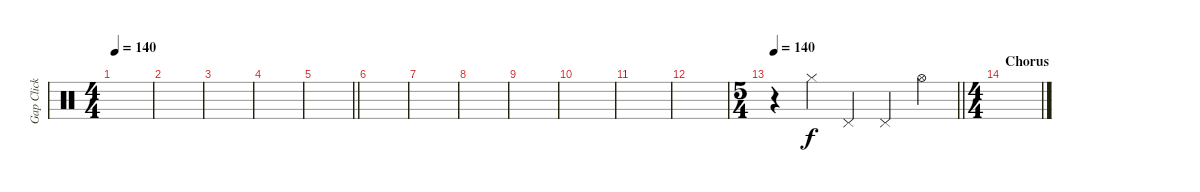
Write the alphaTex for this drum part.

\track ("Gap Click" "Gap Click") {instrument percussion}
\staff {score}
\articulation defaults
\ts (4 4)
\tempo 140
\clef neutral
\ks c
|
|
|
|
\barLineRight lightlight
|
|
|
|
|
|
|
|
\ts (5 4)
\tempo 140
\barLineRight lightlight
r.4 "Hi-Hat (closed)".4 "Pedal Hi-Hat (hit)".4 "Pedal Hi-Hat (hit)".4 "Hi-Hat (open)".4 |
\ts (4 4)
\section ("" "Chorus")
